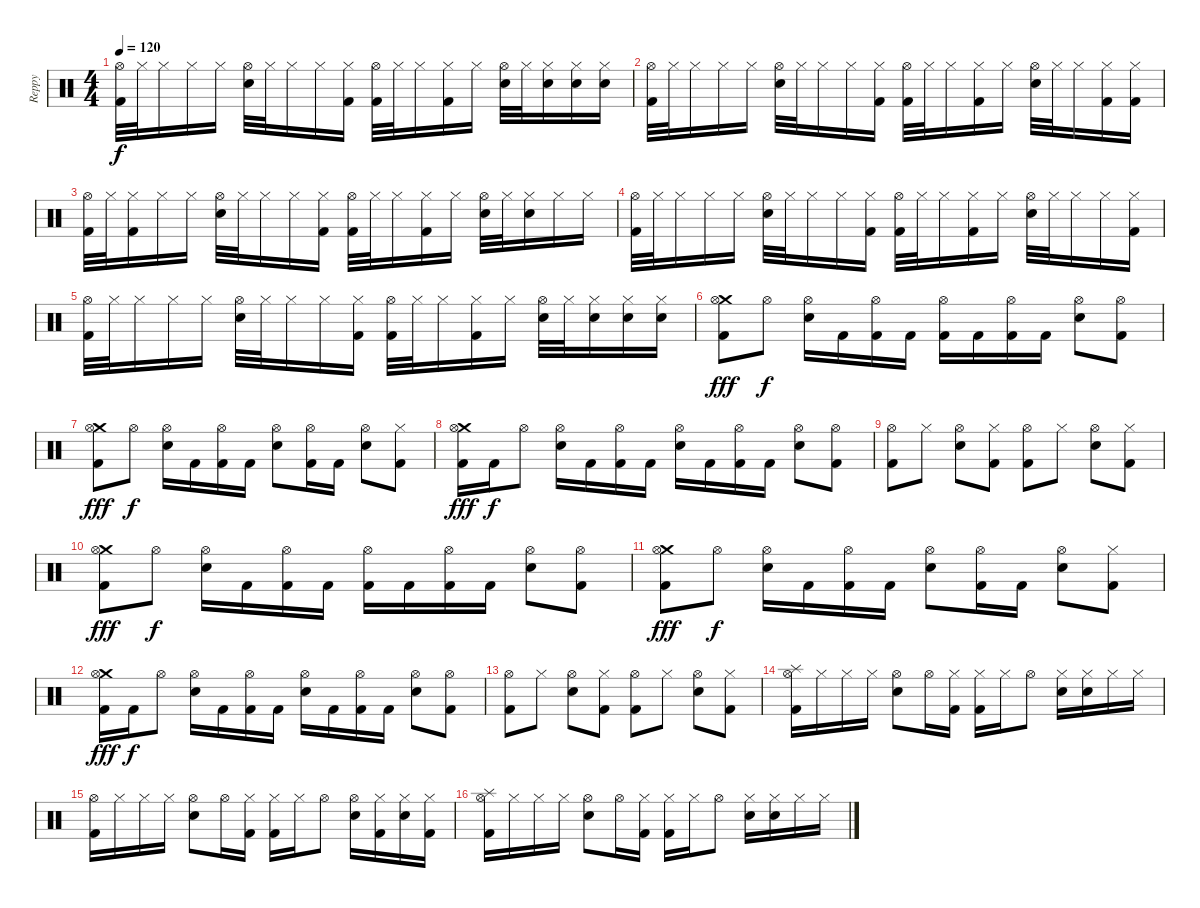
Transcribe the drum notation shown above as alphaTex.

\track ("Reppy" "Reppy") {instrument percussion}
\staff {score}
\articulation defaults
\ts (4 4)
\tempo 120
\clef neutral
\ks c
("Hi-Hat (open)" "Kick (hit) 2").32{dy f} "Hi-Hat (closed)".32 "Hi-Hat (closed)".16 "Hi-Hat (closed)".16 "Hi-Hat (closed)".16 ("Hi-Hat (open)" "Electric Snare (hit)").32 "Hi-Hat (closed)".32 "Hi-Hat (closed)".16 "Hi-Hat (closed)".16 ("Hi-Hat (closed)" "Kick (hit) 2").16 ("Hi-Hat (open)" "Kick (hit) 2").32 "Hi-Hat (closed)".32 "Hi-Hat (closed)".16 ("Hi-Hat (closed)" "Kick (hit) 2").16 "Hi-Hat (closed)".16 ("Hi-Hat (open)" "Electric Snare (hit)").32 "Hi-Hat (closed)".32 ("Hi-Hat (closed)" "Electric Snare (hit)").16 ("Hi-Hat (closed)" "Electric Snare (hit)").16 ("Hi-Hat (closed)" "Electric Snare (hit)").16 |
("Hi-Hat (open)" "Kick (hit) 2").32 "Hi-Hat (closed)".32 "Hi-Hat (closed)".16 "Hi-Hat (closed)".16 "Hi-Hat (closed)".16 ("Hi-Hat (open)" "Electric Snare (hit)").32 "Hi-Hat (closed)".32 "Hi-Hat (closed)".16 "Hi-Hat (closed)".16 ("Hi-Hat (closed)" "Kick (hit) 2").16 ("Hi-Hat (open)" "Kick (hit) 2").32 "Hi-Hat (closed)".32 "Hi-Hat (closed)".16 ("Hi-Hat (closed)" "Kick (hit) 2").16 "Hi-Hat (closed)".16 ("Hi-Hat (open)" "Electric Snare (hit)").32 "Hi-Hat (closed)".32 "Hi-Hat (closed)".16 ("Hi-Hat (closed)" "Kick (hit) 2").16 ("Hi-Hat (closed)" "Kick (hit) 2").16 |
("Hi-Hat (open)" "Kick (hit) 2").32 "Hi-Hat (closed)".32 ("Hi-Hat (closed)" "Kick (hit) 2").16 "Hi-Hat (closed)".16 "Hi-Hat (closed)".16 ("Hi-Hat (open)" "Electric Snare (hit)").32 "Hi-Hat (closed)".32 "Hi-Hat (closed)".16 "Hi-Hat (closed)".16 ("Hi-Hat (closed)" "Kick (hit) 2").16 ("Hi-Hat (open)" "Kick (hit) 2").32 "Hi-Hat (closed)".32 "Hi-Hat (closed)".16 ("Hi-Hat (closed)" "Kick (hit) 2").16 "Hi-Hat (closed)".16 ("Hi-Hat (open)" "Electric Snare (hit)").32 "Hi-Hat (closed)".32 ("Hi-Hat (closed)" "Electric Snare (hit)").16 "Hi-Hat (closed)".16 "Hi-Hat (closed)".16 |
("Hi-Hat (open)" "Kick (hit) 2").32 "Hi-Hat (closed)".32 "Hi-Hat (closed)".16 "Hi-Hat (closed)".16 "Hi-Hat (closed)".16 ("Hi-Hat (open)" "Electric Snare (hit)").32 "Hi-Hat (closed)".32 "Hi-Hat (closed)".16 "Hi-Hat (closed)".16 ("Hi-Hat (closed)" "Kick (hit) 2").16 ("Hi-Hat (open)" "Kick (hit) 2").32 "Hi-Hat (closed)".32 "Hi-Hat (closed)".16 ("Hi-Hat (closed)" "Kick (hit) 2").16 "Hi-Hat (closed)".16 ("Hi-Hat (open)" "Electric Snare (hit)").32 "Hi-Hat (closed)".32 "Hi-Hat (closed)".16 "Hi-Hat (closed)".16 ("Hi-Hat (closed)" "Kick (hit) 2").16 |
("Hi-Hat (open)" "Kick (hit) 2").32 "Hi-Hat (closed)".32 "Hi-Hat (closed)".16 "Hi-Hat (closed)".16 "Hi-Hat (closed)".16 ("Hi-Hat (open)" "Electric Snare (hit)").32 "Hi-Hat (closed)".32 "Hi-Hat (closed)".16 "Hi-Hat (closed)".16 ("Hi-Hat (closed)" "Kick (hit) 2").16 ("Hi-Hat (open)" "Kick (hit) 2").32 "Hi-Hat (closed)".32 "Hi-Hat (closed)".16 ("Hi-Hat (closed)" "Kick (hit) 2").16 "Hi-Hat (closed)".16 ("Hi-Hat (open)" "Electric Snare (hit)").32 "Hi-Hat (closed)".32 ("Hi-Hat (closed)" "Electric Snare (hit)").16 ("Hi-Hat (closed)" "Electric Snare (hit)").16 ("Hi-Hat (closed)" "Electric Snare (hit)").16 |
("Crash medium (hit)" "Hi-Hat (open)" "Kick (hit) 2").8{dy fff} "Hi-Hat (open)".8{dy f} ("Hi-Hat (open)" "Electric Snare (hit)").16 "Kick (hit) 2".16 ("Hi-Hat (open)" "Kick (hit) 2").16 "Kick (hit) 2".16 ("Hi-Hat (open)" "Kick (hit) 2").16 "Kick (hit) 2".16 ("Hi-Hat (open)" "Kick (hit) 2").16 "Kick (hit) 2".16 ("Hi-Hat (open)" "Electric Snare (hit)").8 ("Hi-Hat (open)" "Kick (hit) 2").8 |
("Crash medium (hit)" "Hi-Hat (open)" "Kick (hit) 2").8{dy fff} "Hi-Hat (open)".8{dy f} ("Hi-Hat (open)" "Electric Snare (hit)").16 "Kick (hit) 2".16 ("Hi-Hat (open)" "Kick (hit) 2").16 "Kick (hit) 2".16 ("Hi-Hat (open)" "Electric Snare (hit)").8 ("Hi-Hat (open)" "Kick (hit) 2").16 "Kick (hit) 2".16 ("Hi-Hat (open)" "Electric Snare (hit)").8 ("Hi-Hat (closed)" "Kick (hit) 2").8 |
("Crash medium (hit)" "Hi-Hat (open)" "Kick (hit) 2").16{dy fff} "Kick (hit) 2".16{dy f} "Hi-Hat (open)".8 ("Hi-Hat (open)" "Electric Snare (hit)").16 "Kick (hit) 2".16 ("Hi-Hat (open)" "Kick (hit) 2").16 "Kick (hit) 2".16 ("Hi-Hat (open)" "Electric Snare (hit)").16 "Kick (hit) 2".16 ("Hi-Hat (open)" "Kick (hit) 2").16 "Kick (hit) 2".16 ("Hi-Hat (open)" "Electric Snare (hit)").8 ("Hi-Hat (open)" "Kick (hit) 2").8 |
("Hi-Hat (open)" "Kick (hit) 2").8 "Hi-Hat (closed)".8 ("Hi-Hat (open)" "Electric Snare (hit)").8 ("Hi-Hat (closed)" "Kick (hit) 2").8 ("Hi-Hat (open)" "Kick (hit) 2").8 "Hi-Hat (closed)".8 ("Hi-Hat (open)" "Electric Snare (hit)").8 ("Hi-Hat (closed)" "Kick (hit) 2").8 |
("Crash medium (hit)" "Hi-Hat (open)" "Kick (hit) 2").8{dy fff} "Hi-Hat (open)".8{dy f} ("Hi-Hat (open)" "Electric Snare (hit)").16 "Kick (hit) 2".16 ("Hi-Hat (open)" "Kick (hit) 2").16 "Kick (hit) 2".16 ("Hi-Hat (open)" "Kick (hit) 2").16 "Kick (hit) 2".16 ("Hi-Hat (open)" "Kick (hit) 2").16 "Kick (hit) 2".16 ("Hi-Hat (open)" "Electric Snare (hit)").8 ("Hi-Hat (open)" "Kick (hit) 2").8 |
("Crash medium (hit)" "Hi-Hat (open)" "Kick (hit) 2").8{dy fff} "Hi-Hat (open)".8{dy f} ("Hi-Hat (open)" "Electric Snare (hit)").16 "Kick (hit) 2".16 ("Hi-Hat (open)" "Kick (hit) 2").16 "Kick (hit) 2".16 ("Hi-Hat (open)" "Electric Snare (hit)").8 ("Hi-Hat (open)" "Kick (hit) 2").16 "Kick (hit) 2".16 ("Hi-Hat (open)" "Electric Snare (hit)").8 ("Hi-Hat (closed)" "Kick (hit) 2").8 |
("Crash medium (hit)" "Hi-Hat (open)" "Kick (hit) 2").16{dy fff} "Kick (hit) 2".16{dy f} "Hi-Hat (open)".8 ("Hi-Hat (open)" "Electric Snare (hit)").16 "Kick (hit) 2".16 ("Hi-Hat (open)" "Kick (hit) 2").16 "Kick (hit) 2".16 ("Hi-Hat (open)" "Electric Snare (hit)").16 "Kick (hit) 2".16 ("Hi-Hat (open)" "Kick (hit) 2").16 "Kick (hit) 2".16 ("Hi-Hat (open)" "Electric Snare (hit)").8 ("Hi-Hat (open)" "Kick (hit) 2").8 |
("Hi-Hat (open)" "Kick (hit) 2").8 "Hi-Hat (closed)".8 ("Hi-Hat (open)" "Electric Snare (hit)").8 ("Hi-Hat (closed)" "Kick (hit) 2").8 ("Hi-Hat (open)" "Kick (hit) 2").8 "Hi-Hat (closed)".8 ("Hi-Hat (open)" "Electric Snare (hit)").8 ("Hi-Hat (closed)" "Kick (hit) 2").8 |
("Splash (hit)" "Hi-Hat (open)" "Kick (hit) 2").16 "Hi-Hat (closed)".16 "Hi-Hat (closed)".16 "Hi-Hat (closed)".16 ("Hi-Hat (open)" "Electric Snare (hit)").8 "Hi-Hat (open)".16 ("Hi-Hat (closed)" "Kick (hit) 2").16 ("Hi-Hat (closed)" "Kick (hit) 2").16 "Hi-Hat (closed)".16 "Hi-Hat (open)".8 ("Hi-Hat (closed)" "Electric Snare (hit)").16 ("Hi-Hat (closed)" "Electric Snare (hit)").16 "Hi-Hat (closed)".16 "Hi-Hat (closed)".16 |
("Hi-Hat (open)" "Kick (hit) 2").16 "Hi-Hat (closed)".16 "Hi-Hat (closed)".16 "Hi-Hat (closed)".16 ("Hi-Hat (open)" "Electric Snare (hit)").8 "Hi-Hat (open)".16 ("Hi-Hat (closed)" "Kick (hit) 2").16 ("Hi-Hat (closed)" "Kick (hit) 2").16 "Hi-Hat (closed)".16 "Hi-Hat (open)".8 ("Hi-Hat (open)" "Electric Snare (hit)").16 ("Hi-Hat (closed)" "Kick (hit) 2").16 ("Hi-Hat (closed)" "Electric Snare (hit)").16 ("Hi-Hat (closed)" "Kick (hit) 2").16 |
("Splash (hit)" "Hi-Hat (open)" "Kick (hit) 2").16 "Hi-Hat (closed)".16 "Hi-Hat (closed)".16 "Hi-Hat (closed)".16 ("Hi-Hat (open)" "Electric Snare (hit)").8 "Hi-Hat (open)".16 ("Hi-Hat (closed)" "Kick (hit) 2").16 ("Hi-Hat (closed)" "Kick (hit) 2").16 "Hi-Hat (closed)".16 "Hi-Hat (open)".8 ("Hi-Hat (closed)" "Electric Snare (hit)").16 ("Hi-Hat (closed)" "Electric Snare (hit)").16 "Hi-Hat (closed)".16 "Hi-Hat (closed)".16
